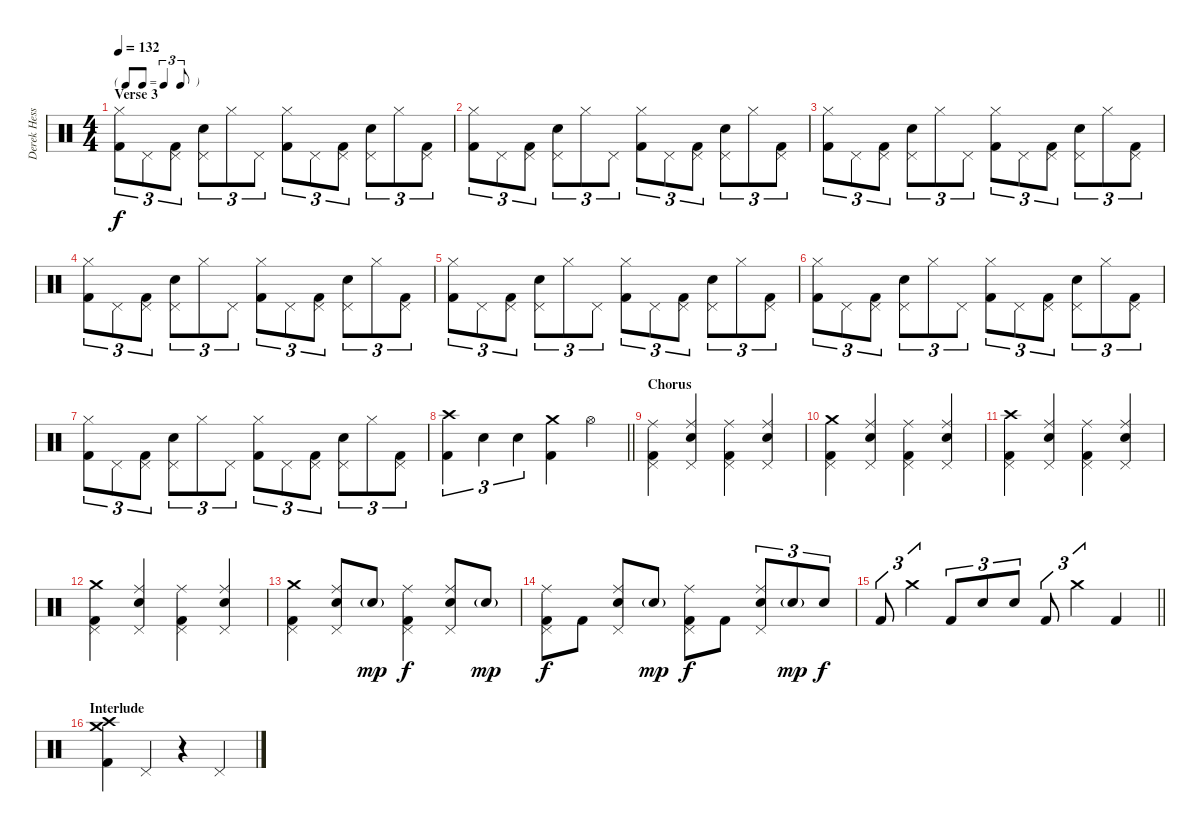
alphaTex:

\track ("Derek Hess (Drums and Percussion)" "Derek Hess") {instrument percussion}
\staff {score}
\articulation defaults
\ts (4 4)
\tf triplet8th
\section ("" "Verse 3")
\tempo 132
\clef neutral
\ks c
("Hi-Hat (closed)" "Kick (hit) 2").8{tu (3 2) dy f} "Pedal Hi-Hat (hit)".8{tu (3 2)} ("Pedal Hi-Hat (hit)" "Kick (hit) 2").8{tu (3 2)} ("Snare (hit) 2" "Pedal Hi-Hat (hit)").8{tu (3 2)} "Hi-Hat (closed)".8{tu (3 2)} "Pedal Hi-Hat (hit)".8{tu (3 2)} ("Hi-Hat (closed)" "Kick (hit) 2").8{tu (3 2)} "Pedal Hi-Hat (hit)".8{tu (3 2)} ("Pedal Hi-Hat (hit)" "Kick (hit) 2").8{tu (3 2)} ("Snare (hit) 2" "Pedal Hi-Hat (hit)").8{tu (3 2)} "Hi-Hat (closed)".8{tu (3 2)} ("Pedal Hi-Hat (hit)" "Kick (hit) 2").8{tu (3 2)} |
("Hi-Hat (closed)" "Kick (hit) 2").8{tu (3 2)} "Pedal Hi-Hat (hit)".8{tu (3 2)} ("Pedal Hi-Hat (hit)" "Kick (hit) 2").8{tu (3 2)} ("Snare (hit) 2" "Pedal Hi-Hat (hit)").8{tu (3 2)} "Hi-Hat (closed)".8{tu (3 2)} "Pedal Hi-Hat (hit)".8{tu (3 2)} ("Hi-Hat (closed)" "Kick (hit) 2").8{tu (3 2)} "Pedal Hi-Hat (hit)".8{tu (3 2)} ("Pedal Hi-Hat (hit)" "Kick (hit) 2").8{tu (3 2)} ("Snare (hit) 2" "Pedal Hi-Hat (hit)").8{tu (3 2)} "Hi-Hat (closed)".8{tu (3 2)} ("Pedal Hi-Hat (hit)" "Kick (hit) 2").8{tu (3 2)} |
("Hi-Hat (closed)" "Kick (hit) 2").8{tu (3 2)} "Pedal Hi-Hat (hit)".8{tu (3 2)} ("Pedal Hi-Hat (hit)" "Kick (hit) 2").8{tu (3 2)} ("Snare (hit) 2" "Pedal Hi-Hat (hit)").8{tu (3 2)} "Hi-Hat (closed)".8{tu (3 2)} "Pedal Hi-Hat (hit)".8{tu (3 2)} ("Hi-Hat (closed)" "Kick (hit) 2").8{tu (3 2)} "Pedal Hi-Hat (hit)".8{tu (3 2)} ("Pedal Hi-Hat (hit)" "Kick (hit) 2").8{tu (3 2)} ("Snare (hit) 2" "Pedal Hi-Hat (hit)").8{tu (3 2)} "Hi-Hat (closed)".8{tu (3 2)} ("Pedal Hi-Hat (hit)" "Kick (hit) 2").8{tu (3 2)} |
("Hi-Hat (closed)" "Kick (hit) 2").8{tu (3 2)} "Pedal Hi-Hat (hit)".8{tu (3 2)} ("Pedal Hi-Hat (hit)" "Kick (hit) 2").8{tu (3 2)} ("Snare (hit) 2" "Pedal Hi-Hat (hit)").8{tu (3 2)} "Hi-Hat (closed)".8{tu (3 2)} "Pedal Hi-Hat (hit)".8{tu (3 2)} ("Hi-Hat (closed)" "Kick (hit) 2").8{tu (3 2)} "Pedal Hi-Hat (hit)".8{tu (3 2)} ("Pedal Hi-Hat (hit)" "Kick (hit) 2").8{tu (3 2)} ("Snare (hit) 2" "Pedal Hi-Hat (hit)").8{tu (3 2)} "Hi-Hat (closed)".8{tu (3 2)} ("Pedal Hi-Hat (hit)" "Kick (hit) 2").8{tu (3 2)} |
("Hi-Hat (closed)" "Kick (hit) 2").8{tu (3 2)} "Pedal Hi-Hat (hit)".8{tu (3 2)} ("Pedal Hi-Hat (hit)" "Kick (hit) 2").8{tu (3 2)} ("Snare (hit) 2" "Pedal Hi-Hat (hit)").8{tu (3 2)} "Hi-Hat (closed)".8{tu (3 2)} "Pedal Hi-Hat (hit)".8{tu (3 2)} ("Hi-Hat (closed)" "Kick (hit) 2").8{tu (3 2)} "Pedal Hi-Hat (hit)".8{tu (3 2)} ("Pedal Hi-Hat (hit)" "Kick (hit) 2").8{tu (3 2)} ("Snare (hit) 2" "Pedal Hi-Hat (hit)").8{tu (3 2)} "Hi-Hat (closed)".8{tu (3 2)} ("Pedal Hi-Hat (hit)" "Kick (hit) 2").8{tu (3 2)} |
("Hi-Hat (closed)" "Kick (hit) 2").8{tu (3 2)} "Pedal Hi-Hat (hit)".8{tu (3 2)} ("Pedal Hi-Hat (hit)" "Kick (hit) 2").8{tu (3 2)} ("Snare (hit) 2" "Pedal Hi-Hat (hit)").8{tu (3 2)} "Hi-Hat (closed)".8{tu (3 2)} "Pedal Hi-Hat (hit)".8{tu (3 2)} ("Hi-Hat (closed)" "Kick (hit) 2").8{tu (3 2)} "Pedal Hi-Hat (hit)".8{tu (3 2)} ("Pedal Hi-Hat (hit)" "Kick (hit) 2").8{tu (3 2)} ("Snare (hit) 2" "Pedal Hi-Hat (hit)").8{tu (3 2)} "Hi-Hat (closed)".8{tu (3 2)} ("Pedal Hi-Hat (hit)" "Kick (hit) 2").8{tu (3 2)} |
("Hi-Hat (closed)" "Kick (hit) 2").8{tu (3 2)} "Pedal Hi-Hat (hit)".8{tu (3 2)} ("Pedal Hi-Hat (hit)" "Kick (hit) 2").8{tu (3 2)} ("Snare (hit) 2" "Pedal Hi-Hat (hit)").8{tu (3 2)} "Hi-Hat (closed)".8{tu (3 2)} "Pedal Hi-Hat (hit)".8{tu (3 2)} ("Hi-Hat (closed)" "Kick (hit) 2").8{tu (3 2)} "Pedal Hi-Hat (hit)".8{tu (3 2)} ("Pedal Hi-Hat (hit)" "Kick (hit) 2").8{tu (3 2)} ("Snare (hit) 2" "Pedal Hi-Hat (hit)").8{tu (3 2)} "Hi-Hat (closed)".8{tu (3 2)} ("Pedal Hi-Hat (hit)" "Kick (hit) 2").8{tu (3 2)} |
\barLineRight lightlight
("Crash high (hit)" "Kick (hit) 2").4{tu (3 2)} "Snare (hit) 2".4{tu (3 2)} "Snare (hit) 2".4{tu (3 2)} ("Crash medium (hit)" "Kick (hit) 2").4 "Hi-Hat (open)".4 |
\section ("" "Chorus")
("Ride (middle)" "Pedal Hi-Hat (hit)" "Kick (hit) 2").4 ("Ride (middle)" "Snare (hit) 2" "Pedal Hi-Hat (hit)").4 ("Ride (middle)" "Pedal Hi-Hat (hit)" "Kick (hit) 2").4 ("Ride (middle)" "Snare (hit) 2" "Pedal Hi-Hat (hit)").4 |
("Crash medium (hit)" "Pedal Hi-Hat (hit)" "Kick (hit) 2").4 ("Ride (middle)" "Snare (hit) 2" "Pedal Hi-Hat (hit)").4 ("Ride (middle)" "Pedal Hi-Hat (hit)" "Kick (hit) 2").4 ("Ride (middle)" "Snare (hit) 2" "Pedal Hi-Hat (hit)").4 |
("Crash high (hit)" "Pedal Hi-Hat (hit)" "Kick (hit) 2").4 ("Ride (middle)" "Snare (hit) 2" "Pedal Hi-Hat (hit)").4 ("Ride (middle)" "Pedal Hi-Hat (hit)" "Kick (hit) 2").4 ("Ride (middle)" "Snare (hit) 2" "Pedal Hi-Hat (hit)").4 |
("Crash medium (hit)" "Pedal Hi-Hat (hit)" "Kick (hit) 2").4 ("Ride (middle)" "Snare (hit) 2" "Pedal Hi-Hat (hit)").4 ("Ride (middle)" "Pedal Hi-Hat (hit)" "Kick (hit) 2").4 ("Ride (middle)" "Snare (hit) 2" "Pedal Hi-Hat (hit)").4 |
("Crash medium (hit)" "Pedal Hi-Hat (hit)" "Kick (hit) 2").4 ("Ride (middle)" "Snare (hit) 2" "Pedal Hi-Hat (hit)").8 "Snare (hit) 2"{g}.8{dy mp} ("Ride (middle)" "Pedal Hi-Hat (hit)" "Kick (hit) 2").4{dy f} ("Ride (middle)" "Snare (hit) 2" "Pedal Hi-Hat (hit)").8 "Snare (hit) 2"{g}.8{dy mp} |
("Ride (middle)" "Pedal Hi-Hat (hit)" "Kick (hit) 2").8{dy f} "Kick (hit) 2".8 ("Ride (middle)" "Snare (hit) 2" "Pedal Hi-Hat (hit)").8 "Snare (hit) 2"{g}.8{dy mp} ("Ride (middle)" "Pedal Hi-Hat (hit)" "Kick (hit) 2").8{dy f} "Kick (hit) 2".8 ("Ride (middle)" "Snare (hit) 2" "Pedal Hi-Hat (hit)").8{tu (3 2)} "Snare (hit) 2"{g}.8{tu (3 2) dy mp} "Snare (hit) 2".8{tu (3 2) dy f} |
\barLineRight lightlight "Kick (hit) 2".8{tu (3 2)} "Crash medium (hit)".4{tu (3 2)} "Kick (hit) 2".8{tu (3 2)} "Snare (hit) 2".8{tu (3 2)} "Snare (hit) 2".8{tu (3 2)} "Kick (hit) 2".8{tu (3 2)} "Crash medium (hit)".4{tu (3 2)} "Kick (hit) 2".4
|
\section ("" "Interlude")
("Crash medium (hit)" "Crash high (hit)" "Kick (hit) 2").4 "Pedal Hi-Hat (hit)".4 r.4 "Pedal Hi-Hat (hit)".4
